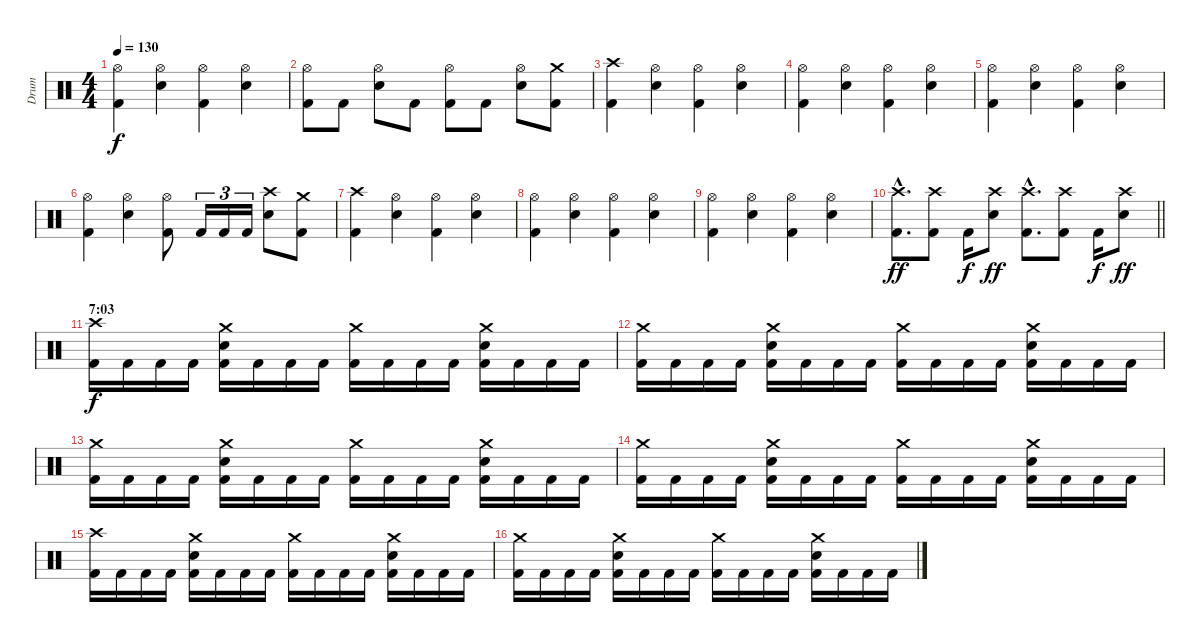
\track ("Drum" "Drum") {instrument percussion}
\staff {score}
\articulation defaults
\ts (4 4)
\tempo 130
\clef neutral
\ks c
("Kick (hit) 2" "Hi-Hat (open)").4{dy f} ("Electric Snare (hit)" "Hi-Hat (open)").4 ("Kick (hit) 2" "Hi-Hat (open)").4 ("Electric Snare (hit)" "Hi-Hat (open)").4 |
("Kick (hit) 2" "Hi-Hat (open)").8 "Kick (hit) 2".8 ("Electric Snare (hit)" "Hi-Hat (open)").8 "Kick (hit) 2".8 ("Kick (hit) 2" "Hi-Hat (open)").8 "Kick (hit) 2".8 ("Electric Snare (hit)" "Hi-Hat (open)").8 ("Kick (hit) 2" "Crash medium (hit)").8 |
("Kick (hit) 2" "Crash high (hit)").4 ("Electric Snare (hit)" "Hi-Hat (open)").4 ("Kick (hit) 2" "Hi-Hat (open)").4 ("Electric Snare (hit)" "Hi-Hat (open)").4 |
("Kick (hit) 2" "Hi-Hat (open)").4 ("Electric Snare (hit)" "Hi-Hat (open)").4 ("Kick (hit) 2" "Hi-Hat (open)").4 ("Electric Snare (hit)" "Hi-Hat (open)").4 |
("Kick (hit) 2" "Hi-Hat (open)").4 ("Electric Snare (hit)" "Hi-Hat (open)").4 ("Kick (hit) 2" "Hi-Hat (open)").4 ("Electric Snare (hit)" "Hi-Hat (open)").4 |
("Kick (hit) 2" "Hi-Hat (open)").4 ("Electric Snare (hit)" "Hi-Hat (open)").4 ("Kick (hit) 2" "Hi-Hat (open)").8 "Kick (hit) 2".16{tu (3 2)} "Kick (hit) 2".16{tu (3 2)} "Kick (hit) 2".16{tu (3 2)} ("Electric Snare (hit)" "Crash high (hit)").8 ("Kick (hit) 2" "Crash medium (hit)").8 |
("Kick (hit) 2" "Crash high (hit)").4 ("Electric Snare (hit)" "Hi-Hat (open)").4 ("Kick (hit) 2" "Hi-Hat (open)").4 ("Electric Snare (hit)" "Hi-Hat (open)").4 |
("Kick (hit) 2" "Hi-Hat (open)").4 ("Electric Snare (hit)" "Hi-Hat (open)").4 ("Kick (hit) 2" "Hi-Hat (open)").4 ("Electric Snare (hit)" "Hi-Hat (open)").4 |
("Kick (hit) 2" "Hi-Hat (open)").4 ("Electric Snare (hit)" "Hi-Hat (open)").4 ("Kick (hit) 2" "Hi-Hat (open)").4 ("Electric Snare (hit)" "Hi-Hat (open)").4 |
\barLineRight lightlight
("Kick (hit) 2"{hac} "Crash high (hit)"{hac}).8{d dy ff} ("Kick (hit) 2" "Crash high (hit)").8 "Kick (hit) 2".16{dy f} ("Electric Snare (hit)" "Crash high (hit)").8{dy ff} ("Kick (hit) 2"{hac} "Crash high (hit)"{hac}).8{d} ("Kick (hit) 2" "Crash high (hit)").8 "Kick (hit) 2".16{dy f} ("Electric Snare (hit)" "Crash high (hit)").8{dy ff} |
\section ("" "7:03")
("Kick (hit) 2" "Crash high (hit)").16{dy f} "Kick (hit) 2".16 "Kick (hit) 2".16 "Kick (hit) 2".16 ("Kick (hit) 2" "Electric Snare (hit)" "Crash medium (hit)").16 "Kick (hit) 2".16 "Kick (hit) 2".16 "Kick (hit) 2".16 ("Kick (hit) 2" "Crash medium (hit)").16 "Kick (hit) 2".16 "Kick (hit) 2".16 "Kick (hit) 2".16 ("Kick (hit) 2" "Electric Snare (hit)" "Crash medium (hit)").16 "Kick (hit) 2".16 "Kick (hit) 2".16 "Kick (hit) 2".16 |
("Kick (hit) 2" "Crash medium (hit)").16 "Kick (hit) 2".16 "Kick (hit) 2".16 "Kick (hit) 2".16 ("Kick (hit) 2" "Electric Snare (hit)" "Crash medium (hit)").16 "Kick (hit) 2".16 "Kick (hit) 2".16 "Kick (hit) 2".16 ("Kick (hit) 2" "Crash medium (hit)").16 "Kick (hit) 2".16 "Kick (hit) 2".16 "Kick (hit) 2".16 ("Kick (hit) 2" "Electric Snare (hit)" "Crash medium (hit)").16 "Kick (hit) 2".16 "Kick (hit) 2".16 "Kick (hit) 2".16 |
("Kick (hit) 2" "Crash medium (hit)").16 "Kick (hit) 2".16 "Kick (hit) 2".16 "Kick (hit) 2".16 ("Kick (hit) 2" "Electric Snare (hit)" "Crash medium (hit)").16 "Kick (hit) 2".16 "Kick (hit) 2".16 "Kick (hit) 2".16 ("Kick (hit) 2" "Crash medium (hit)").16 "Kick (hit) 2".16 "Kick (hit) 2".16 "Kick (hit) 2".16 ("Kick (hit) 2" "Electric Snare (hit)" "Crash medium (hit)").16 "Kick (hit) 2".16 "Kick (hit) 2".16 "Kick (hit) 2".16 |
("Kick (hit) 2" "Crash medium (hit)").16 "Kick (hit) 2".16 "Kick (hit) 2".16 "Kick (hit) 2".16 ("Kick (hit) 2" "Electric Snare (hit)" "Crash medium (hit)").16 "Kick (hit) 2".16 "Kick (hit) 2".16 "Kick (hit) 2".16 ("Kick (hit) 2" "Crash medium (hit)").16 "Kick (hit) 2".16 "Kick (hit) 2".16 "Kick (hit) 2".16 ("Kick (hit) 2" "Electric Snare (hit)" "Crash medium (hit)").16 "Kick (hit) 2".16 "Kick (hit) 2".16 "Kick (hit) 2".16 |
("Kick (hit) 2" "Crash high (hit)").16 "Kick (hit) 2".16 "Kick (hit) 2".16 "Kick (hit) 2".16 ("Kick (hit) 2" "Electric Snare (hit)" "Crash medium (hit)").16 "Kick (hit) 2".16 "Kick (hit) 2".16 "Kick (hit) 2".16 ("Kick (hit) 2" "Crash medium (hit)").16 "Kick (hit) 2".16 "Kick (hit) 2".16 "Kick (hit) 2".16 ("Kick (hit) 2" "Electric Snare (hit)" "Crash medium (hit)").16 "Kick (hit) 2".16 "Kick (hit) 2".16 "Kick (hit) 2".16 |
("Kick (hit) 2" "Crash medium (hit)").16 "Kick (hit) 2".16 "Kick (hit) 2".16 "Kick (hit) 2".16 ("Kick (hit) 2" "Electric Snare (hit)" "Crash medium (hit)").16 "Kick (hit) 2".16 "Kick (hit) 2".16 "Kick (hit) 2".16 ("Kick (hit) 2" "Crash medium (hit)").16 "Kick (hit) 2".16 "Kick (hit) 2".16 "Kick (hit) 2".16 ("Kick (hit) 2" "Electric Snare (hit)" "Crash medium (hit)").16 "Kick (hit) 2".16 "Kick (hit) 2".16 "Kick (hit) 2".16
